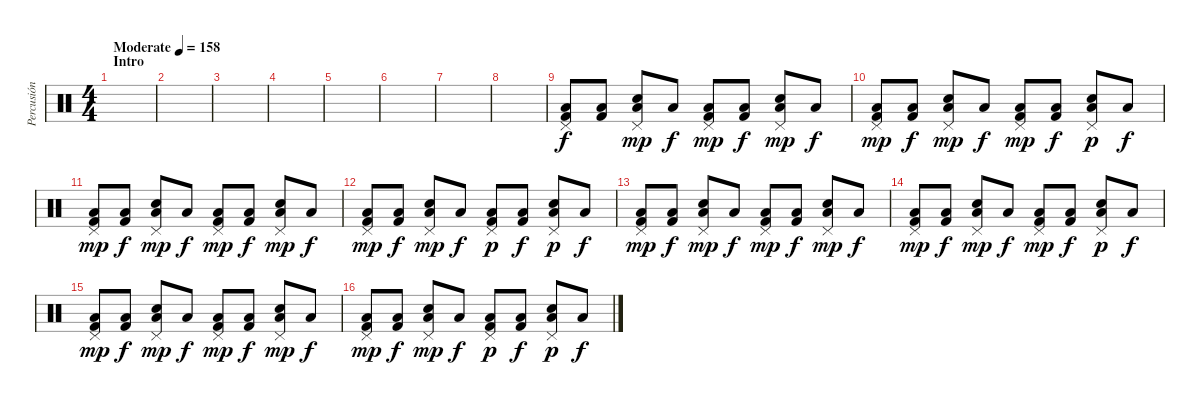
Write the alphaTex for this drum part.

\track ("Percusión" "Percusión") {instrument percussion}
\staff {score}
\articulation defaults
\ts (4 4)
\section ("" "Intro")
\tempo (158 "Moderate")
\clef neutral
\ks c
|
|
|
|
|
|
|
|
("Pedal Hi-Hat (hit)" "Low Floor Tom (hit)" "Kick (hit) 2").8 ("Low Floor Tom (hit)" "Kick (hit) 2").8{dy f} ("Pedal Hi-Hat (hit)" "Low Floor Tom (hit)" "Electric Snare (hit)").8{dy mp} "Low Floor Tom (hit)".8{dy f} ("Pedal Hi-Hat (hit)" "Low Floor Tom (hit)" "Kick (hit) 2").8{dy mp} ("Low Floor Tom (hit)" "Kick (hit) 2").8{dy f} ("Pedal Hi-Hat (hit)" "Low Floor Tom (hit)" "Electric Snare (hit)").8{dy mp} "Low Floor Tom (hit)".8{dy f} |
("Pedal Hi-Hat (hit)" "Low Floor Tom (hit)" "Kick (hit) 2").8{dy mp} ("Low Floor Tom (hit)" "Kick (hit) 2").8{dy f} ("Pedal Hi-Hat (hit)" "Low Floor Tom (hit)" "Electric Snare (hit)").8{dy mp} "Low Floor Tom (hit)".8{dy f} ("Pedal Hi-Hat (hit)" "Low Floor Tom (hit)" "Kick (hit) 2").8{dy mp} ("Low Floor Tom (hit)" "Kick (hit) 2").8{dy f} ("Pedal Hi-Hat (hit)" "Low Floor Tom (hit)" "Electric Snare (hit)").8{dy p} "Low Floor Tom (hit)".8{dy f} |
("Pedal Hi-Hat (hit)" "Low Floor Tom (hit)" "Kick (hit) 2").8{dy mp} ("Low Floor Tom (hit)" "Kick (hit) 2").8{dy f} ("Pedal Hi-Hat (hit)" "Low Floor Tom (hit)" "Electric Snare (hit)").8{dy mp} "Low Floor Tom (hit)".8{dy f} ("Pedal Hi-Hat (hit)" "Low Floor Tom (hit)" "Kick (hit) 2").8{dy mp} ("Low Floor Tom (hit)" "Kick (hit) 2").8{dy f} ("Pedal Hi-Hat (hit)" "Low Floor Tom (hit)" "Electric Snare (hit)").8{dy mp} "Low Floor Tom (hit)".8{dy f} |
("Pedal Hi-Hat (hit)" "Low Floor Tom (hit)" "Kick (hit) 2").8{dy mp} ("Low Floor Tom (hit)" "Kick (hit) 2").8{dy f} ("Pedal Hi-Hat (hit)" "Low Floor Tom (hit)" "Electric Snare (hit)").8{dy mp} "Low Floor Tom (hit)".8{dy f} ("Pedal Hi-Hat (hit)" "Low Floor Tom (hit)" "Kick (hit) 2").8{dy p} ("Low Floor Tom (hit)" "Kick (hit) 2").8{dy f} ("Pedal Hi-Hat (hit)" "Low Floor Tom (hit)" "Electric Snare (hit)").8{dy p} "Low Floor Tom (hit)".8{dy f} |
("Pedal Hi-Hat (hit)" "Low Floor Tom (hit)" "Kick (hit) 2").8{dy mp} ("Low Floor Tom (hit)" "Kick (hit) 2").8{dy f} ("Pedal Hi-Hat (hit)" "Low Floor Tom (hit)" "Electric Snare (hit)").8{dy mp} "Low Floor Tom (hit)".8{dy f} ("Pedal Hi-Hat (hit)" "Low Floor Tom (hit)" "Kick (hit) 2").8{dy mp} ("Low Floor Tom (hit)" "Kick (hit) 2").8{dy f} ("Pedal Hi-Hat (hit)" "Low Floor Tom (hit)" "Electric Snare (hit)").8{dy mp} "Low Floor Tom (hit)".8{dy f} |
("Pedal Hi-Hat (hit)" "Low Floor Tom (hit)" "Kick (hit) 2").8{dy mp} ("Low Floor Tom (hit)" "Kick (hit) 2").8{dy f} ("Pedal Hi-Hat (hit)" "Low Floor Tom (hit)" "Electric Snare (hit)").8{dy mp} "Low Floor Tom (hit)".8{dy f} ("Pedal Hi-Hat (hit)" "Low Floor Tom (hit)" "Kick (hit) 2").8{dy mp} ("Low Floor Tom (hit)" "Kick (hit) 2").8{dy f} ("Pedal Hi-Hat (hit)" "Low Floor Tom (hit)" "Electric Snare (hit)").8{dy p} "Low Floor Tom (hit)".8{dy f} |
("Pedal Hi-Hat (hit)" "Low Floor Tom (hit)" "Kick (hit) 2").8{dy mp} ("Low Floor Tom (hit)" "Kick (hit) 2").8{dy f} ("Pedal Hi-Hat (hit)" "Low Floor Tom (hit)" "Electric Snare (hit)").8{dy mp} "Low Floor Tom (hit)".8{dy f} ("Pedal Hi-Hat (hit)" "Low Floor Tom (hit)" "Kick (hit) 2").8{dy mp} ("Low Floor Tom (hit)" "Kick (hit) 2").8{dy f} ("Pedal Hi-Hat (hit)" "Low Floor Tom (hit)" "Electric Snare (hit)").8{dy mp} "Low Floor Tom (hit)".8{dy f} |
("Pedal Hi-Hat (hit)" "Low Floor Tom (hit)" "Kick (hit) 2").8{dy mp} ("Low Floor Tom (hit)" "Kick (hit) 2").8{dy f} ("Pedal Hi-Hat (hit)" "Low Floor Tom (hit)" "Electric Snare (hit)").8{dy mp} "Low Floor Tom (hit)".8{dy f} ("Pedal Hi-Hat (hit)" "Low Floor Tom (hit)" "Kick (hit) 2").8{dy p} ("Low Floor Tom (hit)" "Kick (hit) 2").8{dy f} ("Pedal Hi-Hat (hit)" "Low Floor Tom (hit)" "Electric Snare (hit)").8{dy p} "Low Floor Tom (hit)".8{dy f}
